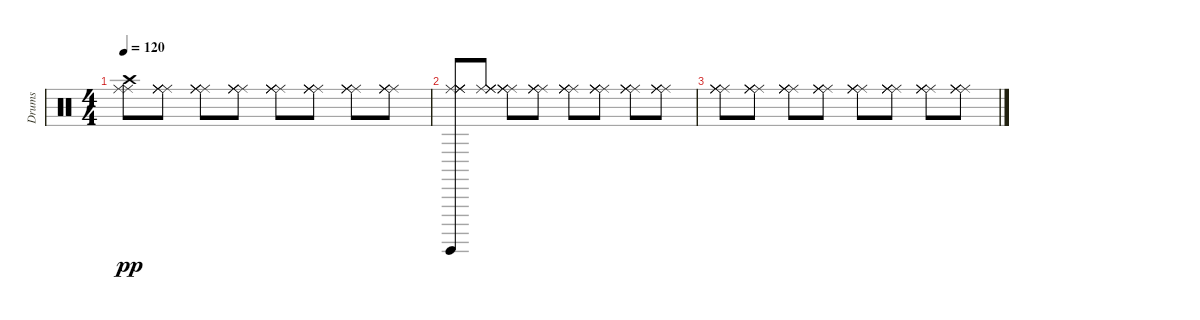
\track ("Drums" "Drums") {instrument percussion}
\staff {score}
\articulation defaults
\ts (4 4)
\tempo 120
\clef neutral
\ks c
("Ride (middle)" "Crash high (hit)" "Ride (middle)").8{dy pp} ("Ride (middle)" "Ride (middle)" "Ride (middle)" "Ride (middle)").8 ("Ride (middle)" "Ride (middle)" "Ride (middle)" "Ride (middle)").8 ("Ride (middle)" "Ride (middle)" "Ride (middle)" "Ride (middle)").8 ("Ride (middle)" "Ride (middle)" "Ride (middle)" "Ride (middle)").8 ("Ride (middle)" "Ride (middle)" "Ride (middle)" "Ride (middle)").8 ("Ride (middle)" "Ride (middle)" "Ride (middle)" "Ride (middle)").8 ("Ride (middle)" "Ride (middle)" "Ride (middle)" "Ride (middle)").8 |
("Ride (middle)" "Ride (middle)" "Ride (middle)" "Surdo (hit)" "Ride (middle)").8 ("Ride (middle)" "Ride (middle)" "Ride (middle)" "Ride (middle)").8 ("Ride (middle)" "Ride (middle)" "Ride (middle)" "Ride (middle)").8 ("Ride (middle)" "Ride (middle)" "Ride (middle)" "Ride (middle)").8 ("Ride (middle)" "Ride (middle)" "Ride (middle)" "Ride (middle)").8 ("Ride (middle)" "Ride (middle)" "Ride (middle)" "Ride (middle)").8 ("Ride (middle)" "Ride (middle)" "Ride (middle)" "Ride (middle)").8 ("Ride (middle)" "Ride (middle)" "Ride (middle)" "Ride (middle)").8 |
("Ride (middle)" "Ride (middle)" "Ride (middle)" "Ride (middle)").8 ("Ride (middle)" "Ride (middle)" "Ride (middle)" "Ride (middle)").8 ("Ride (middle)" "Ride (middle)" "Ride (middle)" "Ride (middle)").8 ("Ride (middle)" "Ride (middle)" "Ride (middle)" "Ride (middle)").8 ("Ride (middle)" "Ride (middle)" "Ride (middle)" "Ride (middle)").8 ("Ride (middle)" "Ride (middle)" "Ride (middle)" "Ride (middle)").8 ("Ride (middle)" "Ride (middle)" "Ride (middle)" "Ride (middle)").8 ("Ride (middle)" "Ride (middle)" "Ride (middle)" "Ride (middle)").8
